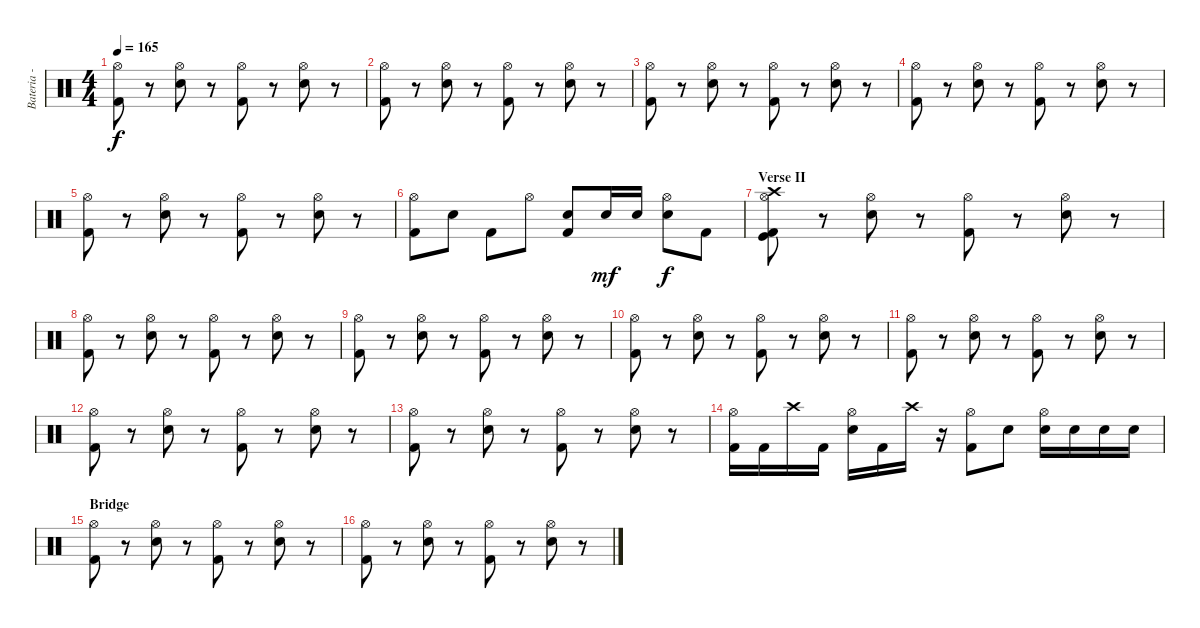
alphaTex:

\track ("Bateria - Drums" "Bateria - ") {instrument percussion}
\staff {score}
\articulation defaults
\ts (4 4)
\tempo 165
\clef neutral
\ks c
("Hi-Hat (open)" "Kick (hit) 2").8{dy f} r.8 ("Hi-Hat (open)" "Electric Snare (hit)").8 r.8 ("Hi-Hat (open)" "Kick (hit) 2").8 r.8 ("Hi-Hat (open)" "Electric Snare (hit)").8 r.8 |
("Hi-Hat (open)" "Kick (hit) 2").8 r.8 ("Hi-Hat (open)" "Electric Snare (hit)").8 r.8 ("Hi-Hat (open)" "Kick (hit) 2").8 r.8 ("Hi-Hat (open)" "Electric Snare (hit)").8 r.8 |
("Hi-Hat (open)" "Kick (hit) 2").8 r.8 ("Hi-Hat (open)" "Electric Snare (hit)").8 r.8 ("Hi-Hat (open)" "Kick (hit) 2").8 r.8 ("Hi-Hat (open)" "Electric Snare (hit)").8 r.8 |
("Hi-Hat (open)" "Kick (hit) 2").8 r.8 ("Hi-Hat (open)" "Electric Snare (hit)").8 r.8 ("Hi-Hat (open)" "Kick (hit) 2").8 r.8 ("Hi-Hat (open)" "Electric Snare (hit)").8 r.8 |
("Hi-Hat (open)" "Kick (hit) 2").8 r.8 ("Hi-Hat (open)" "Electric Snare (hit)").8 r.8 ("Hi-Hat (open)" "Kick (hit) 2").8 r.8 ("Hi-Hat (open)" "Electric Snare (hit)").8 r.8 |
("Hi-Hat (open)" "Kick (hit) 2").8 "Electric Snare (hit)".8 "Kick (hit) 2".8 "Hi-Hat (open)".8 ("Electric Snare (hit)" "Kick (hit) 2").8 "Electric Snare (hit)".16{dy mf} "Electric Snare (hit)".16 ("Hi-Hat (open)" "Electric Snare (hit)").8{dy f} "Kick (hit) 2".8 |
\section ("" "Verse II")
("Hi-Hat (open)" "Crash high (hit)" "Kick (hit)" "Kick (hit) 2").8 r.8 ("Hi-Hat (open)" "Electric Snare (hit)").8 r.8 ("Hi-Hat (open)" "Kick (hit) 2").8 r.8 ("Hi-Hat (open)" "Electric Snare (hit)").8 r.8 |
("Hi-Hat (open)" "Kick (hit) 2").8 r.8 ("Hi-Hat (open)" "Electric Snare (hit)").8 r.8 ("Hi-Hat (open)" "Kick (hit) 2").8 r.8 ("Hi-Hat (open)" "Electric Snare (hit)").8 r.8 |
("Hi-Hat (open)" "Kick (hit) 2").8 r.8 ("Hi-Hat (open)" "Electric Snare (hit)").8 r.8 ("Hi-Hat (open)" "Kick (hit) 2").8 r.8 ("Hi-Hat (open)" "Electric Snare (hit)").8 r.8 |
("Hi-Hat (open)" "Kick (hit) 2").8 r.8 ("Hi-Hat (open)" "Electric Snare (hit)").8 r.8 ("Hi-Hat (open)" "Kick (hit) 2").8 r.8 ("Hi-Hat (open)" "Electric Snare (hit)").8 r.8 |
("Hi-Hat (open)" "Kick (hit) 2").8 r.8 ("Hi-Hat (open)" "Electric Snare (hit)").8 r.8 ("Hi-Hat (open)" "Kick (hit) 2").8 r.8 ("Hi-Hat (open)" "Electric Snare (hit)").8 r.8 |
("Hi-Hat (open)" "Kick (hit) 2").8 r.8 ("Hi-Hat (open)" "Electric Snare (hit)").8 r.8 ("Hi-Hat (open)" "Kick (hit) 2").8 r.8 ("Hi-Hat (open)" "Electric Snare (hit)").8 r.8 |
("Hi-Hat (open)" "Kick (hit) 2").8 r.8 ("Hi-Hat (open)" "Electric Snare (hit)").8 r.8 ("Hi-Hat (open)" "Kick (hit) 2").8 r.8 ("Hi-Hat (open)" "Electric Snare (hit)").8 r.8 |
("Hi-Hat (open)" "Kick (hit) 2").16 "Kick (hit) 2".16 "Crash high (hit)".16 "Kick (hit) 2".16 ("Hi-Hat (open)" "Electric Snare (hit)").16 "Kick (hit) 2".16 "Crash high (hit)".16 r.16 ("Hi-Hat (open)" "Kick (hit) 2").8 "Electric Snare (hit)".8 ("Hi-Hat (open)" "Electric Snare (hit)").16 "Electric Snare (hit)".16 "Electric Snare (hit)".16 "Electric Snare (hit)".16 |
\section ("" "Bridge")
("Hi-Hat (open)" "Kick (hit) 2").8 r.8 ("Hi-Hat (open)" "Electric Snare (hit)").8 r.8 ("Hi-Hat (open)" "Kick (hit) 2").8 r.8 ("Hi-Hat (open)" "Electric Snare (hit)").8 r.8 |
("Hi-Hat (open)" "Kick (hit) 2").8 r.8 ("Hi-Hat (open)" "Electric Snare (hit)").8 r.8 ("Hi-Hat (open)" "Kick (hit) 2").8 r.8 ("Hi-Hat (open)" "Electric Snare (hit)").8 r.8
